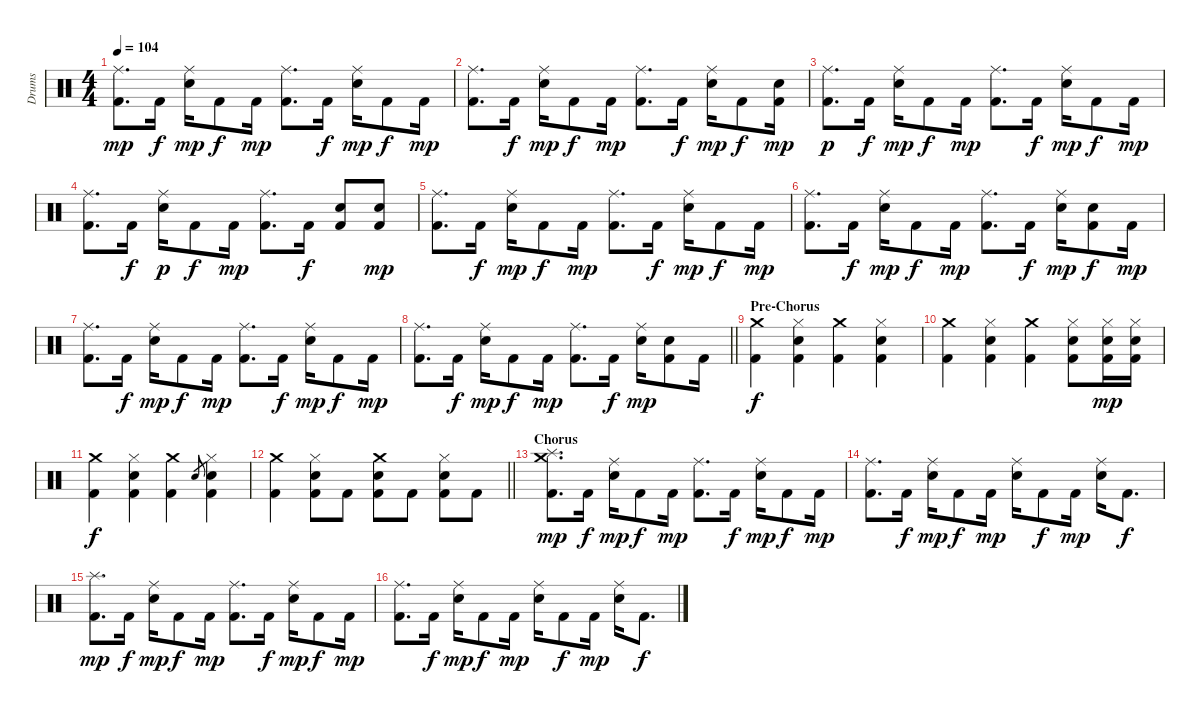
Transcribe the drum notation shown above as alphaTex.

\track ("Drums" "Drums") {instrument percussion}
\staff {score}
\articulation defaults
\ts (4 4)
\tempo 104
\clef neutral
\ks c
("Ride (middle)" "Kick (hit) 2").8{d dy mp} "Kick (hit) 2".16{dy f} ("Ride (middle)" "Electric Snare (hit)").16{dy mp} "Kick (hit) 2".8{dy f} "Kick (hit) 2".16{dy mp} ("Ride (middle)" "Kick (hit) 2").8{d} "Kick (hit) 2".16{dy f} ("Ride (middle)" "Electric Snare (hit)").16{dy mp} "Kick (hit) 2".8{dy f} "Kick (hit) 2".16{dy mp} |
("Ride (middle)" "Kick (hit) 2").8{d} "Kick (hit) 2".16{dy f} ("Ride (middle)" "Electric Snare (hit)").16{dy mp} "Kick (hit) 2".8{dy f} "Kick (hit) 2".16{dy mp} ("Ride (middle)" "Kick (hit) 2").8{d} "Kick (hit) 2".16{dy f} ("Ride (middle)" "Electric Snare (hit)").16{dy mp} "Kick (hit) 2".8{dy f} ("Electric Snare (hit)" "Kick (hit) 2").16{dy mp} |
("Ride (middle)" "Kick (hit) 2").8{d dy p} "Kick (hit) 2".16{dy f} ("Ride (middle)" "Electric Snare (hit)").16{dy mp} "Kick (hit) 2".8{dy f} "Kick (hit) 2".16{dy mp} ("Ride (middle)" "Kick (hit) 2").8{d} "Kick (hit) 2".16{dy f} ("Ride (middle)" "Electric Snare (hit)").16{dy mp} "Kick (hit) 2".8{dy f} "Kick (hit) 2".16{dy mp} |
("Ride (middle)" "Kick (hit) 2").8{d} "Kick (hit) 2".16{dy f} ("Ride (middle)" "Electric Snare (hit)").16{dy p} "Kick (hit) 2".8{dy f} "Kick (hit) 2".16{dy mp} ("Ride (middle)" "Kick (hit) 2").8{d} "Kick (hit) 2".16{dy f} ("Electric Snare (hit)" "Kick (hit) 2").8 ("Electric Snare (hit)" "Kick (hit) 2").8{dy mp} |
("Ride (middle)" "Kick (hit) 2").8{d} "Kick (hit) 2".16{dy f} ("Ride (middle)" "Electric Snare (hit)").16{dy mp} "Kick (hit) 2".8{dy f} "Kick (hit) 2".16{dy mp} ("Ride (middle)" "Kick (hit) 2").8{d} "Kick (hit) 2".16{dy f} ("Ride (middle)" "Electric Snare (hit)").16{dy mp} "Kick (hit) 2".8{dy f} "Kick (hit) 2".16{dy mp} |
("Ride (middle)" "Kick (hit) 2").8{d} "Kick (hit) 2".16{dy f} ("Ride (middle)" "Electric Snare (hit)").16{dy mp} "Kick (hit) 2".8{dy f} "Kick (hit) 2".16{dy mp} ("Ride (middle)" "Kick (hit) 2").8{d} "Kick (hit) 2".16{dy f} ("Ride (middle)" "Electric Snare (hit)").16{dy mp} ("Electric Snare (hit)" "Kick (hit) 2").8{dy f} "Kick (hit) 2".16{dy mp} |
("Ride (middle)" "Kick (hit) 2").8{d} "Kick (hit) 2".16{dy f} ("Ride (middle)" "Electric Snare (hit)").16{dy mp} "Kick (hit) 2".8{dy f} "Kick (hit) 2".16{dy mp} ("Ride (middle)" "Kick (hit) 2").8{d} "Kick (hit) 2".16{dy f} ("Ride (middle)" "Electric Snare (hit)").16{dy mp} "Kick (hit) 2".8{dy f} "Kick (hit) 2".16{dy mp} |
\barLineRight lightlight
("Ride (middle)" "Kick (hit) 2").8{d} "Kick (hit) 2".16{dy f} ("Ride (middle)" "Electric Snare (hit)").16{dy mp} "Kick (hit) 2".8{dy f} "Kick (hit) 2".16{dy mp} ("Ride (middle)" "Kick (hit) 2").8{d} "Kick (hit) 2".16{dy f} ("Ride (middle)" "Electric Snare (hit)").16{dy mp} ("Electric Snare (hit)" "Kick (hit) 2").8 "Kick (hit) 2".16 |
\section ("" "Pre-Chorus")
("Crash medium (hit)" "Kick (hit) 2").4{dy f} ("Hi-Hat (closed)" "Electric Snare (hit)" "Kick (hit) 2").4 ("Crash medium (hit)" "Kick (hit) 2").4 ("Hi-Hat (closed)" "Electric Snare (hit)" "Kick (hit) 2").4 |
("Crash medium (hit)" "Kick (hit) 2").4 ("Hi-Hat (closed)" "Electric Snare (hit)" "Kick (hit) 2").4 ("Crash medium (hit)" "Kick (hit) 2").4 ("Hi-Hat (closed)" "Electric Snare (hit)" "Kick (hit) 2").8 ("Hi-Hat (closed)" "Electric Snare (hit)" "Kick (hit) 2").16{dy mp} ("Hi-Hat (closed)" "Electric Snare (hit)" "Kick (hit) 2").16 |
("Crash medium (hit)" "Kick (hit) 2").4{dy f} ("Hi-Hat (closed)" "Electric Snare (hit)" "Kick (hit) 2").4 ("Crash medium (hit)" "Kick (hit) 2").4 "Electric Snare (hit)".8{gr} ("Hi-Hat (closed)" "Electric Snare (hit)" "Kick (hit) 2").4 |
\barLineRight lightlight
("Crash medium (hit)" "Kick (hit) 2").4 ("Hi-Hat (closed)" "Electric Snare (hit)" "Kick (hit) 2").8 "Kick (hit) 2".8 ("Crash medium (hit)" "Electric Snare (hit)" "Kick (hit) 2").8 "Kick (hit) 2".8 ("Hi-Hat (closed)" "Electric Snare (hit)" "Kick (hit) 2").8 "Kick (hit) 2".8 |
\section ("" "Chorus")
("Splash (hit)" "Crash medium (hit)" "Kick (hit) 2").8{d dy mp} "Kick (hit) 2".16{dy f} ("Ride (middle)" "Electric Snare (hit)").16{dy mp} "Kick (hit) 2".8{dy f} "Kick (hit) 2".16{dy mp} ("Ride (middle)" "Kick (hit) 2").8{d} "Kick (hit) 2".16{dy f} ("Ride (middle)" "Electric Snare (hit)").16{dy mp} "Kick (hit) 2".8{dy f} "Kick (hit) 2".16{dy mp} |
("Ride (middle)" "Kick (hit) 2").8{d} "Kick (hit) 2".16{dy f} ("Ride (middle)" "Electric Snare (hit)").16{dy mp} "Kick (hit) 2".8{dy f} "Kick (hit) 2".16{dy mp} ("Ride (middle)" "Electric Snare (hit)").16 "Kick (hit) 2".8{dy f} "Kick (hit) 2".16{dy mp} ("Ride (middle)" "Electric Snare (hit)").16 "Kick (hit) 2".8{d dy f} |
("Splash (hit)" "Kick (hit) 2").8{d dy mp} "Kick (hit) 2".16{dy f} ("Ride (middle)" "Electric Snare (hit)").16{dy mp} "Kick (hit) 2".8{dy f} "Kick (hit) 2".16{dy mp} ("Ride (middle)" "Kick (hit) 2").8{d} "Kick (hit) 2".16{dy f} ("Ride (middle)" "Electric Snare (hit)").16{dy mp} "Kick (hit) 2".8{dy f} "Kick (hit) 2".16{dy mp} |
("Ride (middle)" "Kick (hit) 2").8{d} "Kick (hit) 2".16{dy f} ("Ride (middle)" "Electric Snare (hit)").16{dy mp} "Kick (hit) 2".8{dy f} "Kick (hit) 2".16{dy mp} ("Ride (middle)" "Electric Snare (hit)").16 "Kick (hit) 2".8{dy f} "Kick (hit) 2".16{dy mp} ("Ride (middle)" "Electric Snare (hit)").16 "Kick (hit) 2".8{d dy f}
